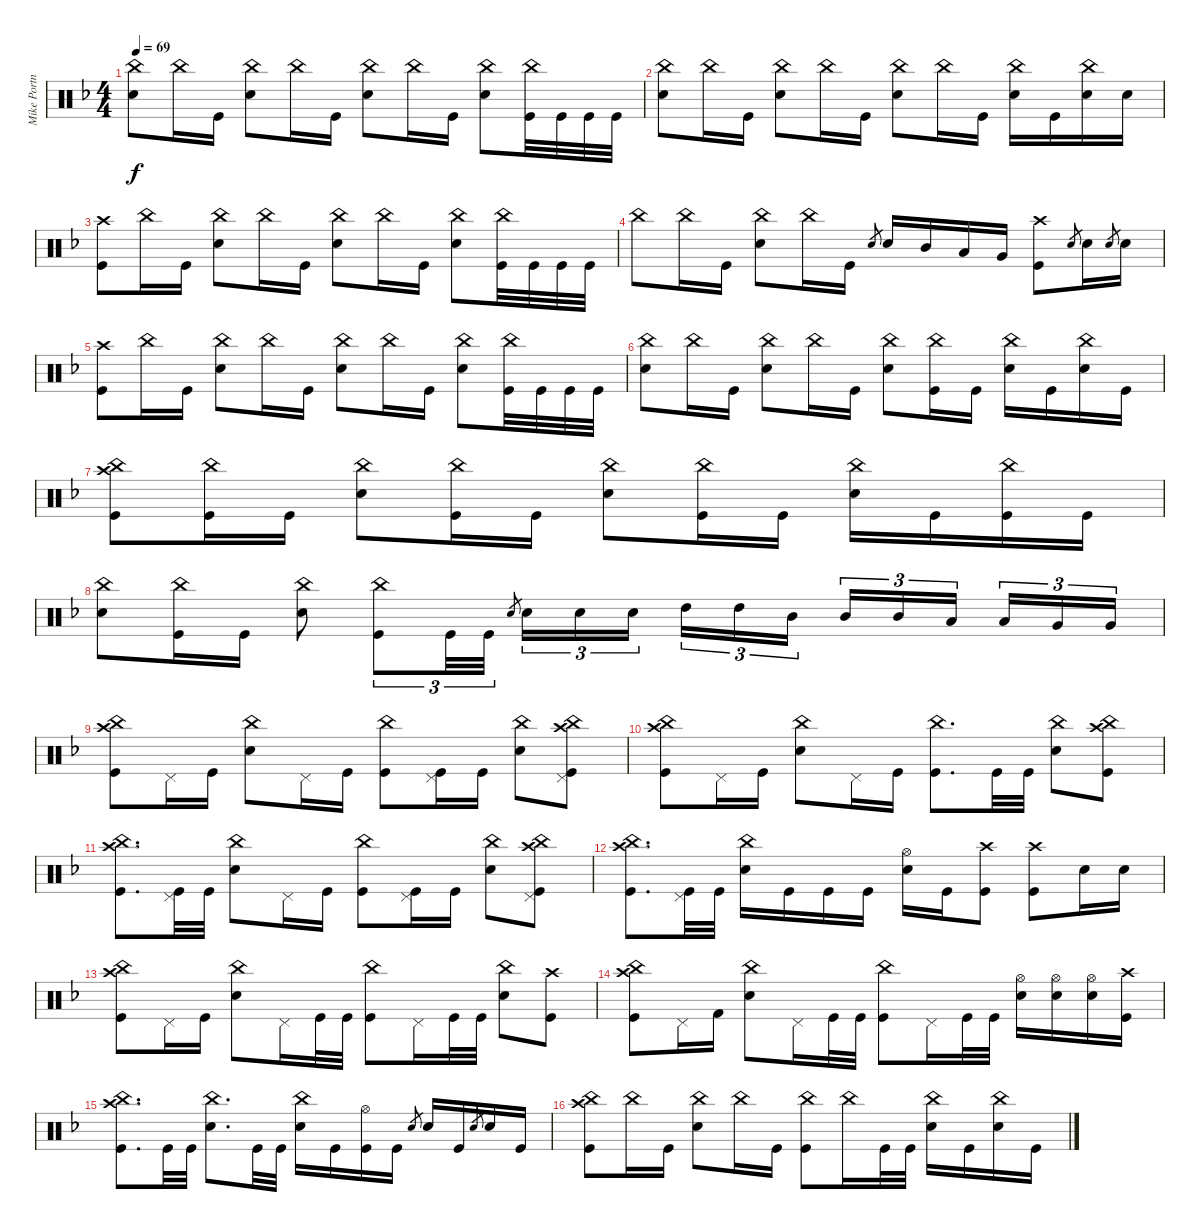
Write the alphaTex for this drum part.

\track ("Mike Portnoy - Drums" "Mike Portn") {instrument percussion}
\staff {score}
\articulation defaults
\ts (4 4)
\tempo 69
\clef neutral
\ks dminor
("China (hit)" "Snare (hit) 2").8{dy f} "China (hit)".16 "Kick (hit)".16 ("China (hit)" "Snare (hit) 2").8 "China (hit)".16 "Kick (hit)".16 ("China (hit)" "Snare (hit) 2").8 "China (hit)".16 "Kick (hit)".16 ("China (hit)" "Snare (hit) 2").8 ("China (hit)" "Kick (hit)").32 "Kick (hit)".32 "Kick (hit)".32 "Kick (hit)".32 |
("China (hit)" "Snare (hit) 2").8 "China (hit)".16 "Kick (hit)".16 ("China (hit)" "Snare (hit) 2").8 "China (hit)".16 "Kick (hit)".16 ("China (hit)" "Snare (hit) 2").8 "China (hit)".16 "Kick (hit)".16 ("China (hit)" "Snare (hit) 2").16 "Kick (hit)".16 ("China (hit)" "Snare (hit) 2").16 "Snare (hit) 2".16 |
("Crash high (hit)" "Kick (hit)").8 "China (hit)".16 "Kick (hit)".16 ("China (hit)" "Snare (hit) 2").8 "China (hit)".16 "Kick (hit)".16 ("China (hit)" "Snare (hit) 2").8 "China (hit)".16 "Kick (hit)".16 ("China (hit)" "Snare (hit) 2").8 ("China (hit)" "Kick (hit)").32 "Kick (hit)".32 "Kick (hit)".32 "Kick (hit)".32 |
"China (hit)".8 "China (hit)".16 "Kick (hit)".16 ("China (hit)" "Snare (hit) 2").8 "China (hit)".16 "Kick (hit)".16 "Snare (hit) 2".8{gr} "Snare (hit) 2".16 "Mid Tom (hit)".16 "Low Tom (hit)".16 "Very Low Tom (hit)".16 ("Crash high (hit)" "Kick (hit)").8 "Snare (hit) 2".8{gr} "Snare (hit) 2".16 "Snare (hit) 2".8{gr} "Snare (hit) 2".16 |
("Crash high (hit)" "Kick (hit)").8 "China (hit)".16 "Kick (hit)".16 ("China (hit)" "Snare (hit) 2").8 "China (hit)".16 "Kick (hit)".16 ("China (hit)" "Snare (hit) 2").8 "China (hit)".16 "Kick (hit)".16 ("China (hit)" "Snare (hit) 2").8 ("China (hit)" "Kick (hit)").32 "Kick (hit)".32 "Kick (hit)".32 "Kick (hit)".32 |
("China (hit)" "Snare (hit) 2").8 "China (hit)".16 "Kick (hit)".16 ("China (hit)" "Snare (hit) 2").8 "China (hit)".16 "Kick (hit)".16 ("China (hit)" "Snare (hit) 2").8 ("China (hit)" "Kick (hit)").16 "Kick (hit)".16 ("China (hit)" "Snare (hit) 2").16 "Kick (hit)".16 ("China (hit)" "Snare (hit) 2").16 "Kick (hit)".16 |
("Crash high (hit)" "China (hit)" "Kick (hit)").8 ("China (hit)" "Kick (hit)").16 "Kick (hit)".16 ("China (hit)" "Snare (hit) 2").8 ("China (hit)" "Kick (hit)").16 "Kick (hit)".16 ("China (hit)" "Snare (hit) 2").8 ("China (hit)" "Kick (hit)").16 "Kick (hit)".16 ("China (hit)" "Snare (hit) 2").16 "Kick (hit)".16 ("China (hit)" "Kick (hit)").16 "Kick (hit)".16 |
("China (hit)" "Snare (hit) 2").8 ("China (hit)" "Kick (hit)").16 "Kick (hit)".16 ("China (hit)" "Snare (hit) 2").8 ("China (hit)" "Kick (hit)").8{tu (3 2)} "Kick (hit)".32{tu (3 2)} "Kick (hit)".32{tu (3 2)} "Snare (hit) 2".8{gr} "Snare (hit) 2".16{tu (3 2)} "Snare (hit) 2".16{tu (3 2)} "Snare (hit) 2".16{tu (3 2) beam splitsecondary} "High Tom (hit)".16{tu (3 2)} "High Tom (hit)".16{tu (3 2)} "Mid Tom (hit)".16{tu (3 2)} "Mid Tom (hit)".16{tu (3 2)} "Mid Tom (hit)".16{tu (3 2)} "Low Tom (hit)".16{tu (3 2) beam splitsecondary} "Low Tom (hit)".16{tu (3 2)} "Very Low Tom (hit)".16{tu (3 2)} "Very Low Tom (hit)".16{tu (3 2)} |
("China (hit)" "Crash high (hit)" "Kick (hit)").8 "Pedal Hi-Hat (hit)".16 "Kick (hit)".16 ("China (hit)" "Snare (hit) 2").8 "Pedal Hi-Hat (hit)".16 "Kick (hit)".16 ("China (hit)" "Kick (hit)").8 ("Pedal Hi-Hat (hit)" "Kick (hit)").16 "Kick (hit)".16 ("China (hit)" "Snare (hit) 2").8 ("Crash high (hit)" "China (hit)" "Pedal Hi-Hat (hit)" "Kick (hit)").8 |
("China (hit)" "Crash high (hit)" "Kick (hit)").8 "Pedal Hi-Hat (hit)".16 "Kick (hit)".16 ("China (hit)" "Snare (hit) 2").8 "Pedal Hi-Hat (hit)".16 "Kick (hit)".16 ("China (hit)" "Kick (hit)").8{d} "Kick (hit)".32 "Kick (hit)".32 ("China (hit)" "Snare (hit) 2").8 ("Crash high (hit)" "China (hit)" "Kick (hit)").8 |
("China (hit)" "Crash high (hit)" "Kick (hit)").8{d} ("Pedal Hi-Hat (hit)" "Kick (hit)").32 "Kick (hit)".32 ("China (hit)" "Snare (hit) 2").8 "Pedal Hi-Hat (hit)".16 "Kick (hit)".16 ("China (hit)" "Kick (hit)").8 ("Pedal Hi-Hat (hit)" "Kick (hit)").16 "Kick (hit)".16 ("China (hit)" "Snare (hit) 2").8 ("Crash high (hit)" "China (hit)" "Pedal Hi-Hat (hit)" "Kick (hit)").8 |
("China (hit)" "Crash high (hit)" "Kick (hit)").8{d} ("Pedal Hi-Hat (hit)" "Kick (hit)").32 "Kick (hit)".32 ("China (hit)" "Snare (hit) 2").16 "Kick (hit)".16 "Kick (hit)".16 "Kick (hit)".16 ("Hi-Hat (open)" "Snare (hit) 2").16 "Kick (hit)".16 ("Crash high (hit)" "Kick (hit)").8 ("Crash high (hit)" "Kick (hit)").8 "Snare (hit) 2".16 "Snare (hit) 2".16 |
("China (hit)" "Crash high (hit)" "Kick (hit)").8 "Pedal Hi-Hat (hit)".16 "Kick (hit)".16 ("China (hit)" "Snare (hit) 2").8 "Pedal Hi-Hat (hit)".16 "Kick (hit)".32 "Kick (hit)".32 ("China (hit)" "Kick (hit)").8 "Pedal Hi-Hat (hit)".16 "Kick (hit)".32 "Kick (hit)".32 ("China (hit)" "Snare (hit) 2").8 ("Crash high (hit)" "Kick (hit)").8 |
("China (hit)" "Crash high (hit)" "Kick (hit)").8 "Pedal Hi-Hat (hit)".16 "Kick (hit) 2".16 ("China (hit)" "Snare (hit) 2").8 "Pedal Hi-Hat (hit)".16 "Kick (hit)".32 "Kick (hit)".32 ("China (hit)" "Kick (hit)").8 "Pedal Hi-Hat (hit)".16 "Kick (hit)".32 "Kick (hit)".32 ("Hi-Hat (open)" "Snare (hit) 2").16 ("Hi-Hat (open)" "Snare (hit) 2").16 ("Hi-Hat (open)" "Snare (hit) 2").16 ("Crash high (hit)" "Kick (hit)").16 |
("China (hit)" "Crash high (hit)" "Kick (hit)").8{d} "Kick (hit)".32 "Kick (hit)".32 ("China (hit)" "Snare (hit) 2").8{d} "Kick (hit)".32 "Kick (hit)".32 ("China (hit)" "Snare (hit) 2").16 "Kick (hit)".16 ("Hi-Hat (open)" "Kick (hit)").16 "Kick (hit)".16 "Snare (hit) 2".8{gr} "Snare (hit) 2".16 "Kick (hit)".16 "Snare (hit) 2".8{gr} "Snare (hit) 2".16 "Kick (hit)".16 |
("China (hit)" "Crash high (hit)" "Kick (hit)").8 "China (hit)".16 "Kick (hit)".16 ("China (hit)" "Snare (hit) 2").8 "China (hit)".16 "Kick (hit)".16 ("China (hit)" "Kick (hit)").8 "China (hit)".16 "Kick (hit)".32 "Kick (hit)".32 ("China (hit)" "Snare (hit) 2").16 "Kick (hit)".16 ("China (hit)" "Snare (hit) 2").16 "Kick (hit)".16
